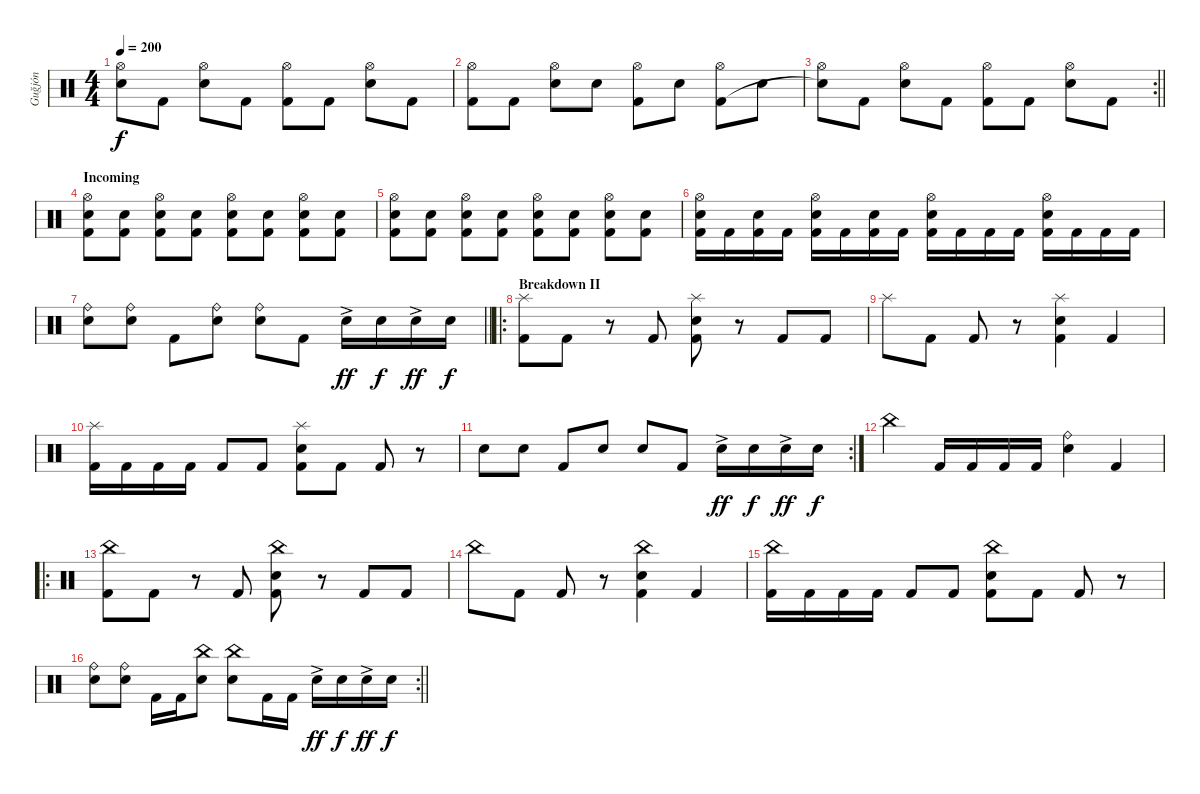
\track ("Guğjón" "Guğjón") {instrument percussion}
\staff {score}
\articulation defaults
\ts (4 4)
\tempo 200
\clef neutral
\ks c
("Hi-Hat (open)" "Snare (hit)"{t}).8{dy f} "Kick (hit) 2".8 ("Hi-Hat (open)" "Electric Snare (hit)").8 "Kick (hit) 2".8 ("Hi-Hat (open)" "Kick (hit) 2").8 "Kick (hit) 2".8 ("Hi-Hat (open)" "Electric Snare (hit)").8 "Kick (hit) 2".8 |
("Hi-Hat (open)" "Kick (hit) 2").8 "Kick (hit) 2".8 ("Hi-Hat (open)" "Electric Snare (hit)").8 "Electric Snare (hit)".8 ("Hi-Hat (open)" "Kick (hit) 2").8 "Electric Snare (hit)".8 ("Hi-Hat (open)" "Kick (hit) 2").8 "Electric Snare (hit)".8 |
\rc 2
\barLineRight lightlight
("Hi-Hat (open)" "Snare (hit)"{t}).8 "Kick (hit) 2".8 ("Hi-Hat (open)" "Electric Snare (hit)").8 "Kick (hit) 2".8 ("Hi-Hat (open)" "Kick (hit) 2").8 "Kick (hit) 2".8 ("Hi-Hat (open)" "Electric Snare (hit)").8 "Kick (hit) 2".8 |
\section ("" "Incoming")
("Hi-Hat (open)" "Kick (hit) 2" "Electric Snare (hit)").8 ("Kick (hit) 2" "Electric Snare (hit)").8 ("Hi-Hat (open)" "Kick (hit) 2" "Electric Snare (hit)").8 ("Kick (hit) 2" "Electric Snare (hit)").8 ("Hi-Hat (open)" "Kick (hit) 2" "Electric Snare (hit)").8 ("Kick (hit) 2" "Electric Snare (hit)").8 ("Hi-Hat (open)" "Kick (hit) 2" "Electric Snare (hit)").8 ("Kick (hit) 2" "Electric Snare (hit)").8 |
("Hi-Hat (open)" "Kick (hit) 2" "Electric Snare (hit)").8 ("Kick (hit) 2" "Electric Snare (hit)").8 ("Hi-Hat (open)" "Kick (hit) 2" "Electric Snare (hit)").8 ("Kick (hit) 2" "Electric Snare (hit)").8 ("Hi-Hat (open)" "Kick (hit) 2" "Electric Snare (hit)").8 ("Kick (hit) 2" "Electric Snare (hit)").8 ("Hi-Hat (open)" "Kick (hit) 2" "Electric Snare (hit)").8 ("Kick (hit) 2" "Electric Snare (hit)").8 |
("Hi-Hat (open)" "Electric Snare (hit)" "Kick (hit) 2").16 "Kick (hit) 2".16 ("Electric Snare (hit)" "Kick (hit) 2").16 "Kick (hit) 2".16 ("Hi-Hat (open)" "Electric Snare (hit)" "Kick (hit) 2").16 "Kick (hit) 2".16 ("Electric Snare (hit)" "Kick (hit) 2").16 "Kick (hit) 2".16 ("Hi-Hat (open)" "Electric Snare (hit)" "Kick (hit) 2").16 "Kick (hit) 2".16 "Kick (hit) 2".16 "Kick (hit) 2".16 ("Hi-Hat (open)" "Electric Snare (hit)" "Kick (hit) 2").16 "Kick (hit) 2".16 "Kick (hit) 2".16 "Kick (hit) 2".16 |
\barLineRight lightlight
("Ride (bell)" "Electric Snare (hit)").8 ("Ride (bell)" "Electric Snare (hit)").8 "Kick (hit) 2".8 ("Ride (bell)" "Electric Snare (hit)").8 ("Ride (bell)" "Electric Snare (hit)").8 "Kick (hit) 2".8 "Electric Snare (hit)"{ac}.16{dy ff} "Electric Snare (hit)".16{dy f} "Electric Snare (hit)"{ac}.16{dy ff} "Electric Snare (hit)".16{dy f} |
\ro
\section ("" "Breakdown II")
("Splash (hit)" "Kick (hit) 2").8 "Kick (hit) 2".8 r.8 "Kick (hit) 2".8 ("Splash (hit)" "Electric Snare (hit)" "Kick (hit) 2").8 r.8 "Kick (hit) 2".8 "Kick (hit) 2".8 |
"Splash (hit)".8 "Kick (hit) 2".8 "Kick (hit) 2".8 r.8 ("Splash (hit)" "Electric Snare (hit)" "Kick (hit) 2").4 "Kick (hit) 2".4 |
("Splash (hit)" "Kick (hit) 2").16 "Kick (hit) 2".16 "Kick (hit) 2".16 "Kick (hit) 2".16 "Kick (hit) 2".8 "Kick (hit) 2".8 ("Splash (hit)" "Electric Snare (hit)" "Kick (hit) 2").8 "Kick (hit) 2".8 "Kick (hit) 2".8 r.8 |
\rc 2 "Electric Snare (hit)".8 "Electric Snare (hit)".8 "Kick (hit) 2".8 "Electric Snare (hit)".8 "Electric Snare (hit)".8 "Kick (hit) 2".8 "Electric Snare (hit)"{ac}.16{dy ff} "Electric Snare (hit)".16{dy f} "Electric Snare (hit)"{ac}.16{dy ff} "Electric Snare (hit)".16{dy f}
|
"China (hit)".4 "Kick (hit) 2".16 "Kick (hit) 2".16 "Kick (hit) 2".16 "Kick (hit) 2".16 ("Ride (bell)" "Electric Snare (hit)").4 "Kick (hit) 2".4 |
\ro
("China (hit)" "Kick (hit) 2").8 "Kick (hit) 2".8 r.8 "Kick (hit) 2".8 ("China (hit)" "Electric Snare (hit)" "Kick (hit) 2").8 r.8 "Kick (hit) 2".8 "Kick (hit) 2".8 |
"China (hit)".8 "Kick (hit) 2".8 "Kick (hit) 2".8 r.8 ("China (hit)" "Electric Snare (hit)" "Kick (hit) 2").4 "Kick (hit) 2".4 |
("China (hit)" "Kick (hit) 2").16 "Kick (hit) 2".16 "Kick (hit) 2".16 "Kick (hit) 2".16 "Kick (hit) 2".8 "Kick (hit) 2".8 ("China (hit)" "Electric Snare (hit)" "Kick (hit) 2").8 "Kick (hit) 2".8 "Kick (hit) 2".8 r.8 |
\rc 2
\barLineRight lightlight
("Ride (bell)" "Electric Snare (hit)").8 ("Ride (bell)" "Electric Snare (hit)").8 "Kick (hit) 2".16 "Kick (hit) 2".16 ("China (hit)" "Electric Snare (hit)").8 ("China (hit)" "Electric Snare (hit)").8 "Kick (hit) 2".16 "Kick (hit) 2".16 "Electric Snare (hit)"{ac}.16{dy ff} "Electric Snare (hit)".16{dy f} "Electric Snare (hit)"{ac}.16{dy ff} "Electric Snare (hit)".16{dy f}
